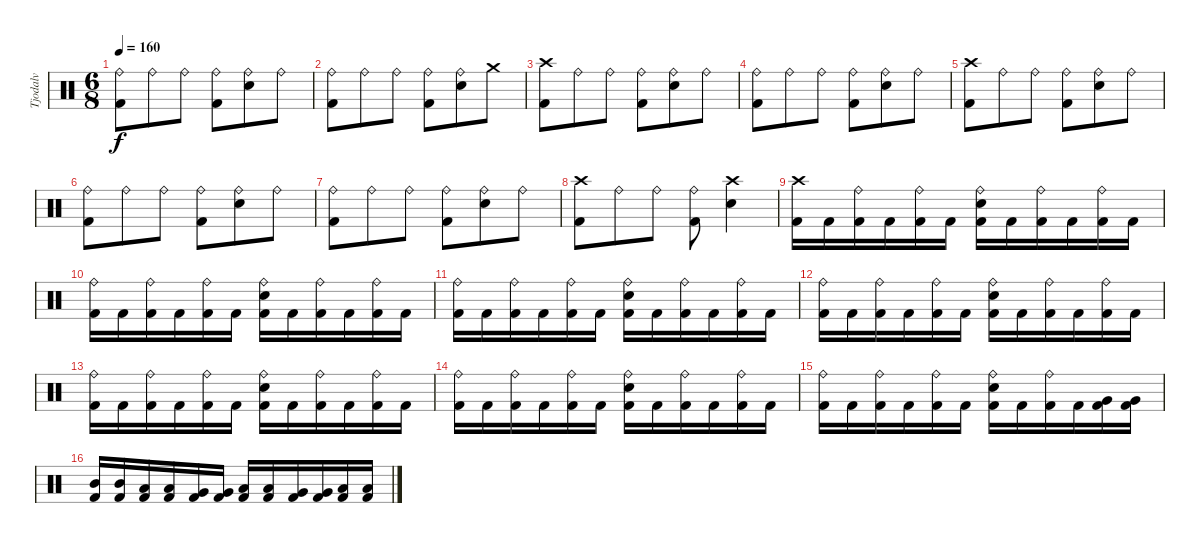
\track ("Tjodalv" "Tjodalv") {instrument percussion}
\staff {score}
\articulation defaults
\ts (6 8)
\tempo 160
\clef neutral
\ks c
("Ride (bell)" "Kick (hit) 2").8{dy f} "Ride (bell)".8 "Ride (bell)".8 ("Ride (bell)" "Kick (hit) 2").8 ("Ride (bell)" "Snare (hit) 2").8 "Ride (bell)".8 |
("Ride (bell)" "Kick (hit) 2").8 "Ride (bell)".8 "Ride (bell)".8 ("Ride (bell)" "Kick (hit) 2").8 ("Ride (bell)" "Snare (hit) 2").8 "Crash medium (hit)".8 |
("Crash high (hit)" "Kick (hit) 2").8 "Ride (bell)".8 "Ride (bell)".8 ("Ride (bell)" "Kick (hit) 2").8 ("Ride (bell)" "Snare (hit) 2").8 "Ride (bell)".8 |
("Ride (bell)" "Kick (hit) 2").8 "Ride (bell)".8 "Ride (bell)".8 ("Ride (bell)" "Kick (hit) 2").8 ("Ride (bell)" "Snare (hit) 2").8 "Ride (bell)".8 |
("Crash high (hit)" "Kick (hit) 2").8 "Ride (bell)".8 "Ride (bell)".8 ("Ride (bell)" "Kick (hit) 2").8 ("Ride (bell)" "Snare (hit) 2").8 "Ride (bell)".8 |
("Ride (bell)" "Kick (hit) 2").8 "Ride (bell)".8 "Ride (bell)".8 ("Ride (bell)" "Kick (hit) 2").8 ("Ride (bell)" "Snare (hit) 2").8 "Ride (bell)".8 |
("Ride (bell)" "Kick (hit) 2").8 "Ride (bell)".8 "Ride (bell)".8 ("Ride (bell)" "Kick (hit) 2").8 ("Ride (bell)" "Snare (hit) 2").8 "Ride (bell)".8 |
("Crash high (hit)" "Kick (hit) 2").8 "Ride (bell)".8 "Ride (bell)".8 ("Ride (bell)" "Kick (hit) 2").8 ("Crash high (hit)" "Snare (hit) 2").4 |
("Crash high (hit)" "Kick (hit) 2").16 "Kick (hit) 2".16 ("Ride (bell)" "Kick (hit) 2").16 "Kick (hit) 2".16 ("Ride (bell)" "Kick (hit) 2").16 "Kick (hit) 2".16 ("Ride (bell)" "Snare (hit) 2" "Kick (hit) 2").16 "Kick (hit) 2".16 ("Ride (bell)" "Kick (hit) 2").16 "Kick (hit) 2".16 ("Ride (bell)" "Kick (hit) 2").16 "Kick (hit) 2".16 |
("Ride (bell)" "Kick (hit) 2").16 "Kick (hit) 2".16 ("Ride (bell)" "Kick (hit) 2").16 "Kick (hit) 2".16 ("Ride (bell)" "Kick (hit) 2").16 "Kick (hit) 2".16 ("Ride (bell)" "Snare (hit) 2" "Kick (hit) 2").16 "Kick (hit) 2".16 ("Ride (bell)" "Kick (hit) 2").16 "Kick (hit) 2".16 ("Ride (bell)" "Kick (hit) 2").16 "Kick (hit) 2".16 |
("Ride (bell)" "Kick (hit) 2").16 "Kick (hit) 2".16 ("Ride (bell)" "Kick (hit) 2").16 "Kick (hit) 2".16 ("Ride (bell)" "Kick (hit) 2").16 "Kick (hit) 2".16 ("Ride (bell)" "Snare (hit) 2" "Kick (hit) 2").16 "Kick (hit) 2".16 ("Ride (bell)" "Kick (hit) 2").16 "Kick (hit) 2".16 ("Ride (bell)" "Kick (hit) 2").16 "Kick (hit) 2".16 |
("Ride (bell)" "Kick (hit) 2").16 "Kick (hit) 2".16 ("Ride (bell)" "Kick (hit) 2").16 "Kick (hit) 2".16 ("Ride (bell)" "Kick (hit) 2").16 "Kick (hit) 2".16 ("Ride (bell)" "Snare (hit) 2" "Kick (hit) 2").16 "Kick (hit) 2".16 ("Ride (bell)" "Kick (hit) 2").16 "Kick (hit) 2".16 ("Ride (bell)" "Kick (hit) 2").16 "Kick (hit) 2".16 |
("Ride (bell)" "Kick (hit) 2").16 "Kick (hit) 2".16 ("Ride (bell)" "Kick (hit) 2").16 "Kick (hit) 2".16 ("Ride (bell)" "Kick (hit) 2").16 "Kick (hit) 2".16 ("Ride (bell)" "Snare (hit) 2" "Kick (hit) 2").16 "Kick (hit) 2".16 ("Ride (bell)" "Kick (hit) 2").16 "Kick (hit) 2".16 ("Ride (bell)" "Kick (hit) 2").16 "Kick (hit) 2".16 |
("Ride (bell)" "Kick (hit) 2").16 "Kick (hit) 2".16 ("Ride (bell)" "Kick (hit) 2").16 "Kick (hit) 2".16 ("Ride (bell)" "Kick (hit) 2").16 "Kick (hit) 2".16 ("Ride (bell)" "Snare (hit) 2" "Kick (hit) 2").16 "Kick (hit) 2".16 ("Ride (bell)" "Kick (hit) 2").16 "Kick (hit) 2".16 ("Ride (bell)" "Kick (hit) 2").16 "Kick (hit) 2".16 |
("Ride (bell)" "Kick (hit) 2").16 "Kick (hit) 2".16 ("Ride (bell)" "Kick (hit) 2").16 "Kick (hit) 2".16 ("Ride (bell)" "Kick (hit) 2").16 "Kick (hit) 2".16 ("Ride (bell)" "Snare (hit) 2" "Kick (hit) 2").16 "Kick (hit) 2".16 ("Ride (bell)" "Kick (hit) 2").16 "Kick (hit) 2".16 ("Very Low Tom (hit)" "Kick (hit) 2").16 ("Very Low Tom (hit)" "Kick (hit) 2").16 |
("Mid Tom (hit)" "Kick (hit) 2").16 ("Mid Tom (hit)" "Kick (hit) 2").16 ("Low Tom (hit)" "Kick (hit) 2").16 ("Low Tom (hit)" "Kick (hit) 2").16 ("Very Low Tom (hit)" "Kick (hit) 2").16 ("Very Low Tom (hit)" "Kick (hit) 2").16 ("Low Tom (hit)" "Kick (hit) 2").16 ("Low Tom (hit)" "Kick (hit) 2").16 ("Very Low Tom (hit)" "Kick (hit) 2").16 ("Very Low Tom (hit)" "Kick (hit) 2").16 ("Low Floor Tom (hit)" "Kick (hit) 2").16 ("Low Floor Tom (hit)" "Kick (hit) 2").16
